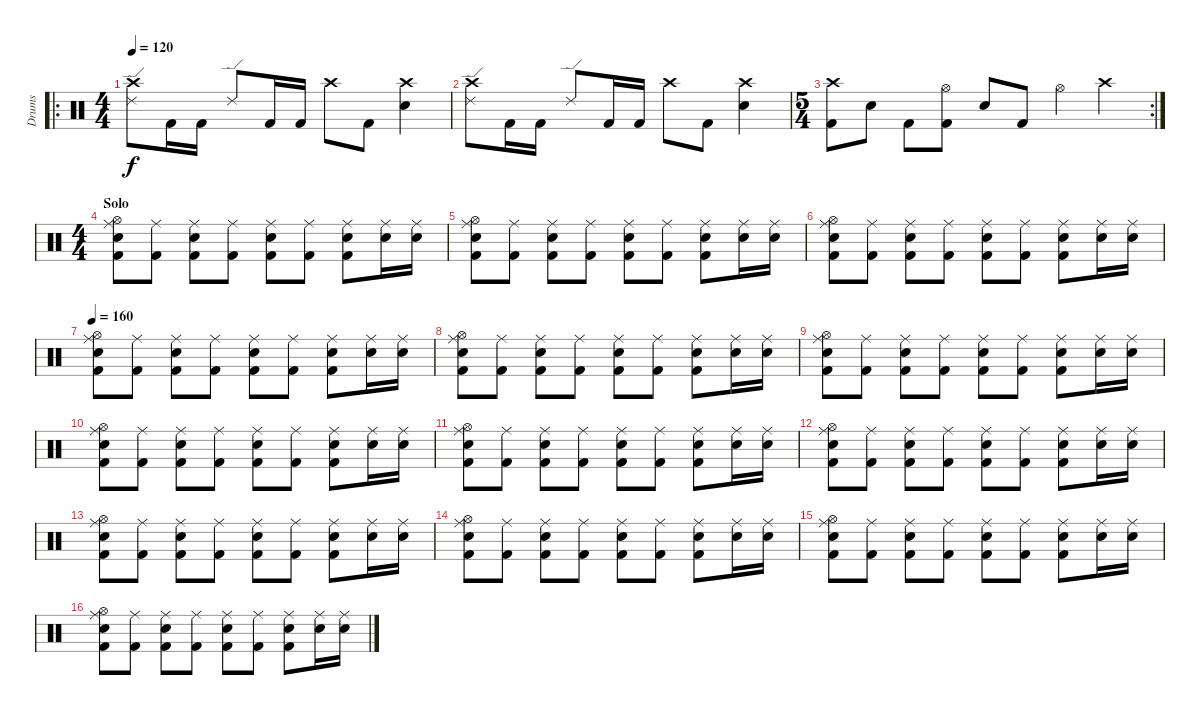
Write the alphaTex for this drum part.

\track ("Drums" "Drums") {instrument percussion}
\staff {score}
\articulation defaults
\ro
\ts (4 4)
\tempo 120
\clef neutral
\ks c
("Crash high (hit)" "Ride (edge) 2").8{dy f volume 9} "Kick (hit) 2".16 "Kick (hit) 2".16 "Ride (edge) 2".8 "Kick (hit) 2".16 "Kick (hit) 2".16 "Crash high (hit)".8 "Kick (hit) 2".8 ("Crash high (hit)" "Electric Snare (hit)").4 |
("Crash high (hit)" "Ride (edge) 2").8 "Kick (hit) 2".16 "Kick (hit) 2".16 "Ride (edge) 2".8 "Kick (hit) 2".16 "Kick (hit) 2".16 "Crash high (hit)".8 "Kick (hit) 2".8 ("Crash high (hit)" "Electric Snare (hit)").4 |
\rc 2
\ts (5 4)
("Crash high (hit)" "Kick (hit) 2").8 "Snare (hit) 2".8 "Kick (hit) 2".8 ("Kick (hit) 2" "Hi-Hat (open)").8 "Electric Snare (hit)".8 "Kick (hit) 2".8 "Hi-Hat (open)".4 "Crash high (hit)".4 |
\ts (4 4)
\section ("" "Solo")
("Ride (middle)" "Hi-Hat (open)" "Electric Snare (hit)" "Kick (hit) 2").8 ("Ride (middle)" "Kick (hit) 2").8 ("Ride (middle)" "Electric Snare (hit)" "Kick (hit) 2").8 ("Ride (middle)" "Kick (hit) 2").8 ("Ride (middle)" "Electric Snare (hit)" "Kick (hit) 2").8 ("Ride (middle)" "Kick (hit) 2").8 ("Ride (middle)" "Electric Snare (hit)" "Kick (hit) 2").8 ("Ride (middle)" "Electric Snare (hit)").16 ("Ride (middle)" "Electric Snare (hit)").16 |
("Ride (middle)" "Hi-Hat (open)" "Electric Snare (hit)" "Kick (hit) 2").8 ("Ride (middle)" "Kick (hit) 2").8 ("Ride (middle)" "Electric Snare (hit)" "Kick (hit) 2").8 ("Ride (middle)" "Kick (hit) 2").8 ("Ride (middle)" "Electric Snare (hit)" "Kick (hit) 2").8 ("Ride (middle)" "Kick (hit) 2").8 ("Ride (middle)" "Electric Snare (hit)" "Kick (hit) 2").8 ("Ride (middle)" "Electric Snare (hit)").16 ("Ride (middle)" "Electric Snare (hit)").16 |
("Ride (middle)" "Hi-Hat (open)" "Electric Snare (hit)" "Kick (hit) 2").8 ("Ride (middle)" "Kick (hit) 2").8 ("Ride (middle)" "Electric Snare (hit)" "Kick (hit) 2").8 ("Ride (middle)" "Kick (hit) 2").8 ("Ride (middle)" "Electric Snare (hit)" "Kick (hit) 2").8 ("Ride (middle)" "Kick (hit) 2").8 ("Ride (middle)" "Electric Snare (hit)" "Kick (hit) 2").8 ("Ride (middle)" "Electric Snare (hit)").16 ("Ride (middle)" "Electric Snare (hit)").16 |
\tempo 160
("Ride (middle)" "Hi-Hat (open)" "Electric Snare (hit)" "Kick (hit) 2").8 ("Ride (middle)" "Kick (hit) 2").8 ("Ride (middle)" "Electric Snare (hit)" "Kick (hit) 2").8 ("Ride (middle)" "Kick (hit) 2").8 ("Ride (middle)" "Electric Snare (hit)" "Kick (hit) 2").8 ("Ride (middle)" "Kick (hit) 2").8 ("Ride (middle)" "Electric Snare (hit)" "Kick (hit) 2").8 ("Ride (middle)" "Electric Snare (hit)").16 ("Ride (middle)" "Electric Snare (hit)").16 |
("Ride (middle)" "Hi-Hat (open)" "Electric Snare (hit)" "Kick (hit) 2").8 ("Ride (middle)" "Kick (hit) 2").8 ("Ride (middle)" "Electric Snare (hit)" "Kick (hit) 2").8 ("Ride (middle)" "Kick (hit) 2").8 ("Ride (middle)" "Electric Snare (hit)" "Kick (hit) 2").8 ("Ride (middle)" "Kick (hit) 2").8 ("Ride (middle)" "Electric Snare (hit)" "Kick (hit) 2").8 ("Ride (middle)" "Electric Snare (hit)").16 ("Ride (middle)" "Electric Snare (hit)").16 |
("Ride (middle)" "Hi-Hat (open)" "Electric Snare (hit)" "Kick (hit) 2").8 ("Ride (middle)" "Kick (hit) 2").8 ("Ride (middle)" "Electric Snare (hit)" "Kick (hit) 2").8 ("Ride (middle)" "Kick (hit) 2").8 ("Ride (middle)" "Electric Snare (hit)" "Kick (hit) 2").8 ("Ride (middle)" "Kick (hit) 2").8 ("Ride (middle)" "Electric Snare (hit)" "Kick (hit) 2").8 ("Ride (middle)" "Electric Snare (hit)").16 ("Ride (middle)" "Electric Snare (hit)").16 |
("Ride (middle)" "Hi-Hat (open)" "Electric Snare (hit)" "Kick (hit) 2").8 ("Ride (middle)" "Kick (hit) 2").8 ("Ride (middle)" "Electric Snare (hit)" "Kick (hit) 2").8 ("Ride (middle)" "Kick (hit) 2").8 ("Ride (middle)" "Electric Snare (hit)" "Kick (hit) 2").8 ("Ride (middle)" "Kick (hit) 2").8 ("Ride (middle)" "Electric Snare (hit)" "Kick (hit) 2").8 ("Ride (middle)" "Electric Snare (hit)").16 ("Ride (middle)" "Electric Snare (hit)").16 |
("Ride (middle)" "Hi-Hat (open)" "Electric Snare (hit)" "Kick (hit) 2").8 ("Ride (middle)" "Kick (hit) 2").8 ("Ride (middle)" "Electric Snare (hit)" "Kick (hit) 2").8 ("Ride (middle)" "Kick (hit) 2").8 ("Ride (middle)" "Electric Snare (hit)" "Kick (hit) 2").8 ("Ride (middle)" "Kick (hit) 2").8 ("Ride (middle)" "Electric Snare (hit)" "Kick (hit) 2").8 ("Ride (middle)" "Electric Snare (hit)").16 ("Ride (middle)" "Electric Snare (hit)").16 |
("Ride (middle)" "Hi-Hat (open)" "Electric Snare (hit)" "Kick (hit) 2").8 ("Ride (middle)" "Kick (hit) 2").8 ("Ride (middle)" "Electric Snare (hit)" "Kick (hit) 2").8 ("Ride (middle)" "Kick (hit) 2").8 ("Ride (middle)" "Electric Snare (hit)" "Kick (hit) 2").8 ("Ride (middle)" "Kick (hit) 2").8 ("Ride (middle)" "Electric Snare (hit)" "Kick (hit) 2").8 ("Ride (middle)" "Electric Snare (hit)").16 ("Ride (middle)" "Electric Snare (hit)").16 |
("Ride (middle)" "Hi-Hat (open)" "Electric Snare (hit)" "Kick (hit) 2").8 ("Ride (middle)" "Kick (hit) 2").8 ("Ride (middle)" "Electric Snare (hit)" "Kick (hit) 2").8 ("Ride (middle)" "Kick (hit) 2").8 ("Ride (middle)" "Electric Snare (hit)" "Kick (hit) 2").8 ("Ride (middle)" "Kick (hit) 2").8 ("Ride (middle)" "Electric Snare (hit)" "Kick (hit) 2").8 ("Ride (middle)" "Electric Snare (hit)").16 ("Ride (middle)" "Electric Snare (hit)").16 |
("Ride (middle)" "Hi-Hat (open)" "Electric Snare (hit)" "Kick (hit) 2").8 ("Ride (middle)" "Kick (hit) 2").8 ("Ride (middle)" "Electric Snare (hit)" "Kick (hit) 2").8 ("Ride (middle)" "Kick (hit) 2").8 ("Ride (middle)" "Electric Snare (hit)" "Kick (hit) 2").8 ("Ride (middle)" "Kick (hit) 2").8 ("Ride (middle)" "Electric Snare (hit)" "Kick (hit) 2").8 ("Ride (middle)" "Electric Snare (hit)").16 ("Ride (middle)" "Electric Snare (hit)").16 |
("Ride (middle)" "Hi-Hat (open)" "Electric Snare (hit)" "Kick (hit) 2").8 ("Ride (middle)" "Kick (hit) 2").8 ("Ride (middle)" "Electric Snare (hit)" "Kick (hit) 2").8 ("Ride (middle)" "Kick (hit) 2").8 ("Ride (middle)" "Electric Snare (hit)" "Kick (hit) 2").8 ("Ride (middle)" "Kick (hit) 2").8 ("Ride (middle)" "Electric Snare (hit)" "Kick (hit) 2").8 ("Ride (middle)" "Electric Snare (hit)").16 ("Ride (middle)" "Electric Snare (hit)").16 |
("Ride (middle)" "Hi-Hat (open)" "Electric Snare (hit)" "Kick (hit) 2").8 ("Ride (middle)" "Kick (hit) 2").8 ("Ride (middle)" "Electric Snare (hit)" "Kick (hit) 2").8 ("Ride (middle)" "Kick (hit) 2").8 ("Ride (middle)" "Electric Snare (hit)" "Kick (hit) 2").8 ("Ride (middle)" "Kick (hit) 2").8 ("Ride (middle)" "Electric Snare (hit)" "Kick (hit) 2").8 ("Ride (middle)" "Electric Snare (hit)").16 ("Ride (middle)" "Electric Snare (hit)").16
